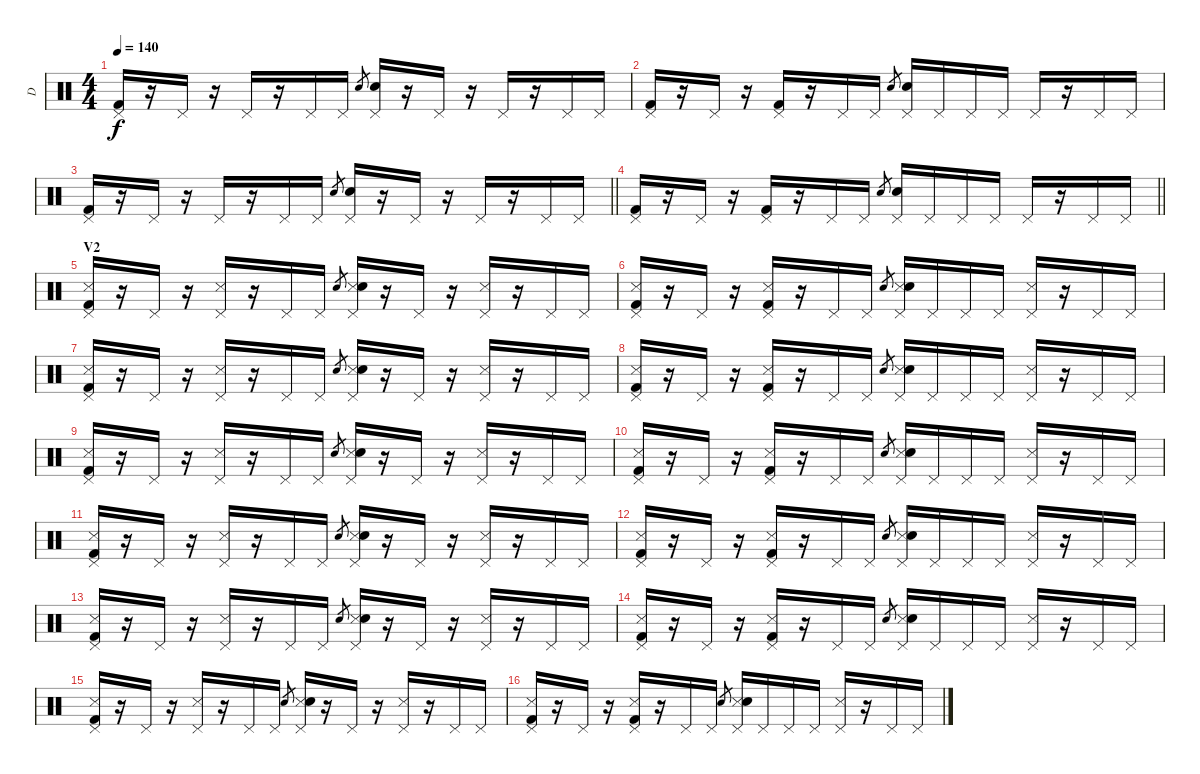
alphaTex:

\track ("D" "D") {instrument percussion}
\staff {score}
\articulation defaults
\ts (4 4)
\tempo 140
\clef neutral
\ks c
("Kick (hit) 2" "Pedal Hi-Hat (hit)").16{dy f} r.16 "Pedal Hi-Hat (hit)".16 r.16 "Pedal Hi-Hat (hit)".16 r.16 "Pedal Hi-Hat (hit)".16 "Pedal Hi-Hat (hit)".16 "Electric Snare (hit)".8{gr} ("Electric Snare (hit)" "Pedal Hi-Hat (hit)").16 r.16 "Pedal Hi-Hat (hit)".16 r.16 "Pedal Hi-Hat (hit)".16 r.16 "Pedal Hi-Hat (hit)".16 "Pedal Hi-Hat (hit)".16 |
("Kick (hit) 2" "Pedal Hi-Hat (hit)").16 r.16 "Pedal Hi-Hat (hit)".16 r.16 ("Kick (hit) 2" "Pedal Hi-Hat (hit)").16 r.16 "Pedal Hi-Hat (hit)".16 "Pedal Hi-Hat (hit)".16 "Electric Snare (hit)".8{gr} ("Electric Snare (hit)" "Pedal Hi-Hat (hit)").16 "Pedal Hi-Hat (hit)".16 "Pedal Hi-Hat (hit)".16 "Pedal Hi-Hat (hit)".16 "Pedal Hi-Hat (hit)".16 r.16 "Pedal Hi-Hat (hit)".16 "Pedal Hi-Hat (hit)".16 |
\barLineRight lightlight
("Kick (hit) 2" "Pedal Hi-Hat (hit)").16 r.16 "Pedal Hi-Hat (hit)".16 r.16 "Pedal Hi-Hat (hit)".16 r.16 "Pedal Hi-Hat (hit)".16 "Pedal Hi-Hat (hit)".16 "Electric Snare (hit)".8{gr} ("Electric Snare (hit)" "Pedal Hi-Hat (hit)").16 r.16 "Pedal Hi-Hat (hit)".16 r.16 "Pedal Hi-Hat (hit)".16 r.16 "Pedal Hi-Hat (hit)".16 "Pedal Hi-Hat (hit)".16 |
\barLineRight lightlight
("Kick (hit) 2" "Pedal Hi-Hat (hit)").16 r.16 "Pedal Hi-Hat (hit)".16 r.16 ("Kick (hit) 2" "Pedal Hi-Hat (hit)").16 r.16 "Pedal Hi-Hat (hit)".16 "Pedal Hi-Hat (hit)".16 "Electric Snare (hit)".8{gr} ("Electric Snare (hit)" "Pedal Hi-Hat (hit)").16 "Pedal Hi-Hat (hit)".16 "Pedal Hi-Hat (hit)".16 "Pedal Hi-Hat (hit)".16 "Pedal Hi-Hat (hit)".16 r.16 "Pedal Hi-Hat (hit)".16 "Pedal Hi-Hat (hit)".16 |
\section ("" "V2")
("Metronome (hit)" "Kick (hit) 2" "Pedal Hi-Hat (hit)").16 r.16 "Pedal Hi-Hat (hit)".16 r.16 ("Metronome (hit)" "Pedal Hi-Hat (hit)").16 r.16 "Pedal Hi-Hat (hit)".16 "Pedal Hi-Hat (hit)".16 "Electric Snare (hit)".8{gr} ("Metronome (hit)" "Electric Snare (hit)" "Pedal Hi-Hat (hit)").16 r.16 "Pedal Hi-Hat (hit)".16 r.16 ("Metronome (hit)" "Pedal Hi-Hat (hit)").16 r.16 "Pedal Hi-Hat (hit)".16 "Pedal Hi-Hat (hit)".16 |
("Metronome (hit)" "Kick (hit) 2" "Pedal Hi-Hat (hit)").16 r.16 "Pedal Hi-Hat (hit)".16 r.16 ("Metronome (hit)" "Kick (hit) 2" "Pedal Hi-Hat (hit)").16 r.16 "Pedal Hi-Hat (hit)".16 "Pedal Hi-Hat (hit)".16 "Electric Snare (hit)".8{gr} ("Metronome (hit)" "Electric Snare (hit)" "Pedal Hi-Hat (hit)").16 "Pedal Hi-Hat (hit)".16 "Pedal Hi-Hat (hit)".16 "Pedal Hi-Hat (hit)".16 ("Metronome (hit)" "Pedal Hi-Hat (hit)").16 r.16 "Pedal Hi-Hat (hit)".16 "Pedal Hi-Hat (hit)".16 |
("Metronome (hit)" "Kick (hit) 2" "Pedal Hi-Hat (hit)").16 r.16 "Pedal Hi-Hat (hit)".16 r.16 ("Metronome (hit)" "Pedal Hi-Hat (hit)").16 r.16 "Pedal Hi-Hat (hit)".16 "Pedal Hi-Hat (hit)".16 "Electric Snare (hit)".8{gr} ("Metronome (hit)" "Electric Snare (hit)" "Pedal Hi-Hat (hit)").16 r.16 "Pedal Hi-Hat (hit)".16 r.16 ("Metronome (hit)" "Pedal Hi-Hat (hit)").16 r.16 "Pedal Hi-Hat (hit)".16 "Pedal Hi-Hat (hit)".16 |
("Metronome (hit)" "Kick (hit) 2" "Pedal Hi-Hat (hit)").16 r.16 "Pedal Hi-Hat (hit)".16 r.16 ("Metronome (hit)" "Kick (hit) 2" "Pedal Hi-Hat (hit)").16 r.16 "Pedal Hi-Hat (hit)".16 "Pedal Hi-Hat (hit)".16 "Electric Snare (hit)".8{gr} ("Metronome (hit)" "Electric Snare (hit)" "Pedal Hi-Hat (hit)").16 "Pedal Hi-Hat (hit)".16 "Pedal Hi-Hat (hit)".16 "Pedal Hi-Hat (hit)".16 ("Metronome (hit)" "Pedal Hi-Hat (hit)").16 r.16 "Pedal Hi-Hat (hit)".16 "Pedal Hi-Hat (hit)".16 |
("Metronome (hit)" "Kick (hit) 2" "Pedal Hi-Hat (hit)").16 r.16 "Pedal Hi-Hat (hit)".16 r.16 ("Metronome (hit)" "Pedal Hi-Hat (hit)").16 r.16 "Pedal Hi-Hat (hit)".16 "Pedal Hi-Hat (hit)".16 "Electric Snare (hit)".8{gr} ("Metronome (hit)" "Electric Snare (hit)" "Pedal Hi-Hat (hit)").16 r.16 "Pedal Hi-Hat (hit)".16 r.16 ("Metronome (hit)" "Pedal Hi-Hat (hit)").16 r.16 "Pedal Hi-Hat (hit)".16 "Pedal Hi-Hat (hit)".16 |
("Metronome (hit)" "Kick (hit) 2" "Pedal Hi-Hat (hit)").16 r.16 "Pedal Hi-Hat (hit)".16 r.16 ("Metronome (hit)" "Kick (hit) 2" "Pedal Hi-Hat (hit)").16 r.16 "Pedal Hi-Hat (hit)".16 "Pedal Hi-Hat (hit)".16 "Electric Snare (hit)".8{gr} ("Metronome (hit)" "Electric Snare (hit)" "Pedal Hi-Hat (hit)").16 "Pedal Hi-Hat (hit)".16 "Pedal Hi-Hat (hit)".16 "Pedal Hi-Hat (hit)".16 ("Metronome (hit)" "Pedal Hi-Hat (hit)").16 r.16 "Pedal Hi-Hat (hit)".16 "Pedal Hi-Hat (hit)".16 |
("Metronome (hit)" "Kick (hit) 2" "Pedal Hi-Hat (hit)").16 r.16 "Pedal Hi-Hat (hit)".16 r.16 ("Metronome (hit)" "Pedal Hi-Hat (hit)").16 r.16 "Pedal Hi-Hat (hit)".16 "Pedal Hi-Hat (hit)".16 "Electric Snare (hit)".8{gr} ("Metronome (hit)" "Electric Snare (hit)" "Pedal Hi-Hat (hit)").16 r.16 "Pedal Hi-Hat (hit)".16 r.16 ("Metronome (hit)" "Pedal Hi-Hat (hit)").16 r.16 "Pedal Hi-Hat (hit)".16 "Pedal Hi-Hat (hit)".16 |
("Metronome (hit)" "Kick (hit) 2" "Pedal Hi-Hat (hit)").16 r.16 "Pedal Hi-Hat (hit)".16 r.16 ("Metronome (hit)" "Kick (hit) 2" "Pedal Hi-Hat (hit)").16 r.16 "Pedal Hi-Hat (hit)".16 "Pedal Hi-Hat (hit)".16 "Electric Snare (hit)".8{gr} ("Metronome (hit)" "Electric Snare (hit)" "Pedal Hi-Hat (hit)").16 "Pedal Hi-Hat (hit)".16 "Pedal Hi-Hat (hit)".16 "Pedal Hi-Hat (hit)".16 ("Metronome (hit)" "Pedal Hi-Hat (hit)").16 r.16 "Pedal Hi-Hat (hit)".16 "Pedal Hi-Hat (hit)".16 |
("Metronome (hit)" "Kick (hit) 2" "Pedal Hi-Hat (hit)").16 r.16 "Pedal Hi-Hat (hit)".16 r.16 ("Metronome (hit)" "Pedal Hi-Hat (hit)").16 r.16 "Pedal Hi-Hat (hit)".16 "Pedal Hi-Hat (hit)".16 "Electric Snare (hit)".8{gr} ("Metronome (hit)" "Electric Snare (hit)" "Pedal Hi-Hat (hit)").16 r.16 "Pedal Hi-Hat (hit)".16 r.16 ("Metronome (hit)" "Pedal Hi-Hat (hit)").16 r.16 "Pedal Hi-Hat (hit)".16 "Pedal Hi-Hat (hit)".16 |
("Metronome (hit)" "Kick (hit) 2" "Pedal Hi-Hat (hit)").16 r.16 "Pedal Hi-Hat (hit)".16 r.16 ("Metronome (hit)" "Kick (hit) 2" "Pedal Hi-Hat (hit)").16 r.16 "Pedal Hi-Hat (hit)".16 "Pedal Hi-Hat (hit)".16 "Electric Snare (hit)".8{gr} ("Metronome (hit)" "Electric Snare (hit)" "Pedal Hi-Hat (hit)").16 "Pedal Hi-Hat (hit)".16 "Pedal Hi-Hat (hit)".16 "Pedal Hi-Hat (hit)".16 ("Metronome (hit)" "Pedal Hi-Hat (hit)").16 r.16 "Pedal Hi-Hat (hit)".16 "Pedal Hi-Hat (hit)".16 |
("Metronome (hit)" "Kick (hit) 2" "Pedal Hi-Hat (hit)").16 r.16 "Pedal Hi-Hat (hit)".16 r.16 ("Metronome (hit)" "Pedal Hi-Hat (hit)").16 r.16 "Pedal Hi-Hat (hit)".16 "Pedal Hi-Hat (hit)".16 "Electric Snare (hit)".8{gr} ("Metronome (hit)" "Electric Snare (hit)" "Pedal Hi-Hat (hit)").16 r.16 "Pedal Hi-Hat (hit)".16 r.16 ("Metronome (hit)" "Pedal Hi-Hat (hit)").16 r.16 "Pedal Hi-Hat (hit)".16 "Pedal Hi-Hat (hit)".16 |
("Metronome (hit)" "Kick (hit) 2" "Pedal Hi-Hat (hit)").16 r.16 "Pedal Hi-Hat (hit)".16 r.16 ("Metronome (hit)" "Kick (hit) 2" "Pedal Hi-Hat (hit)").16 r.16 "Pedal Hi-Hat (hit)".16 "Pedal Hi-Hat (hit)".16 "Electric Snare (hit)".8{gr} ("Metronome (hit)" "Electric Snare (hit)" "Pedal Hi-Hat (hit)").16 "Pedal Hi-Hat (hit)".16 "Pedal Hi-Hat (hit)".16 "Pedal Hi-Hat (hit)".16 ("Metronome (hit)" "Pedal Hi-Hat (hit)").16 r.16 "Pedal Hi-Hat (hit)".16 "Pedal Hi-Hat (hit)".16
